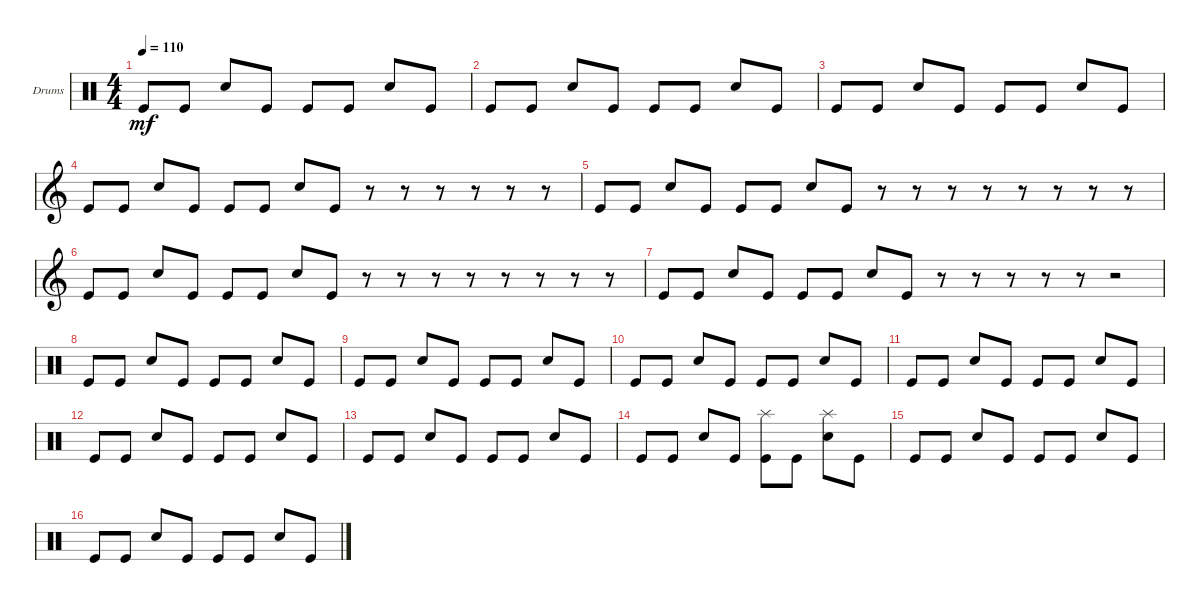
\defaultSystemsLayout 4
\bracketExtendMode groupsimilarinstruments
\firstSystemTrackNameOrientation horizontal
\otherSystemsTrackNameOrientation horizontal
\track ("Tico Torres" "Drums") {instrument percussion}
\staff {score}
\articulation defaults
\ts (4 4)
\tempo 110
\clef neutral
\ks c "Kick (hit)".8{dy mf} "Kick (hit)".8 "Snare (hit) 2".8 "Kick (hit)".8 "Kick (hit)".8 "Kick (hit)".8 "Snare (hit) 2".8 "Kick (hit)".8
|
"Kick (hit)".8 "Kick (hit)".8 "Snare (hit) 2".8 "Kick (hit)".8 "Kick (hit)".8 "Kick (hit)".8 "Snare (hit) 2".8 "Kick (hit)".8 |
"Kick (hit)".8 "Kick (hit)".8 "Snare (hit) 2".8 "Kick (hit)".8 "Kick (hit)".8 "Kick (hit)".8 "Snare (hit) 2".8 "Kick (hit)".8 |
\clef g2 "Kick (hit)".8 "Kick (hit)".8 "Snare (hit) 2".8 "Kick (hit)".8 "Kick (hit)".8 "Kick (hit)".8 "Snare (hit) 2".8 "Kick (hit)".8
r.8 r.8 r.8 r.8 r.8 r.8 |
"Kick (hit)".8 "Kick (hit)".8 "Snare (hit) 2".8 "Kick (hit)".8 "Kick (hit)".8 "Kick (hit)".8 "Snare (hit) 2".8 "Kick (hit)".8 r.8 r.8 r.8 r.8 r.8 r.8 r.8 r.8 |
"Kick (hit)".8 "Kick (hit)".8 "Snare (hit) 2".8 "Kick (hit)".8 "Kick (hit)".8 "Kick (hit)".8 "Snare (hit) 2".8 "Kick (hit)".8 r.8 r.8 r.8 r.8 r.8 r.8 r.8 r.8 |
"Kick (hit)".8 "Kick (hit)".8 "Snare (hit) 2".8 "Kick (hit)".8 "Kick (hit)".8 "Kick (hit)".8 "Snare (hit) 2".8 "Kick (hit)".8 r.8 r.8 r.8 r.8 r.8 r.2 |
\clef neutral "Kick (hit)".8 "Kick (hit)".8 "Snare (hit) 2".8 "Kick (hit)".8 "Kick (hit)".8 "Kick (hit)".8 "Snare (hit) 2".8 "Kick (hit)".8
|
"Kick (hit)".8 "Kick (hit)".8 "Snare (hit) 2".8 "Kick (hit)".8 "Kick (hit)".8 "Kick (hit)".8 "Snare (hit) 2".8 "Kick (hit)".8 |
"Kick (hit)".8 "Kick (hit)".8 "Snare (hit) 2".8 "Kick (hit)".8 "Kick (hit)".8 "Kick (hit)".8 "Snare (hit) 2".8 "Kick (hit)".8 |
"Kick (hit)".8 "Kick (hit)".8 "Snare (hit) 2".8 "Kick (hit)".8 "Kick (hit)".8 "Kick (hit)".8 "Snare (hit) 2".8 "Kick (hit)".8 |
"Kick (hit)".8 "Kick (hit)".8 "Snare (hit) 2".8 "Kick (hit)".8 "Kick (hit)".8 "Kick (hit)".8 "Snare (hit) 2".8 "Kick (hit)".8 |
"Kick (hit)".8 "Kick (hit)".8 "Snare (hit) 2".8 "Kick (hit)".8 "Kick (hit)".8 "Kick (hit)".8 "Snare (hit) 2".8 "Kick (hit)".8 |
"Kick (hit)".8 "Kick (hit)".8 "Snare (hit) 2".8 "Kick (hit)".8 ("Kick (hit)" "Splash (hit)").8 "Kick (hit)".8 ("Snare (hit) 2" "Splash (hit)").8 "Kick (hit)".8 |
"Kick (hit)".8 "Kick (hit)".8 "Snare (hit) 2".8 "Kick (hit)".8 "Kick (hit)".8 "Kick (hit)".8 "Snare (hit) 2".8 "Kick (hit)".8 |
"Kick (hit)".8 "Kick (hit)".8 "Snare (hit) 2".8 "Kick (hit)".8 "Kick (hit)".8 "Kick (hit)".8 "Snare (hit) 2".8 "Kick (hit)".8
